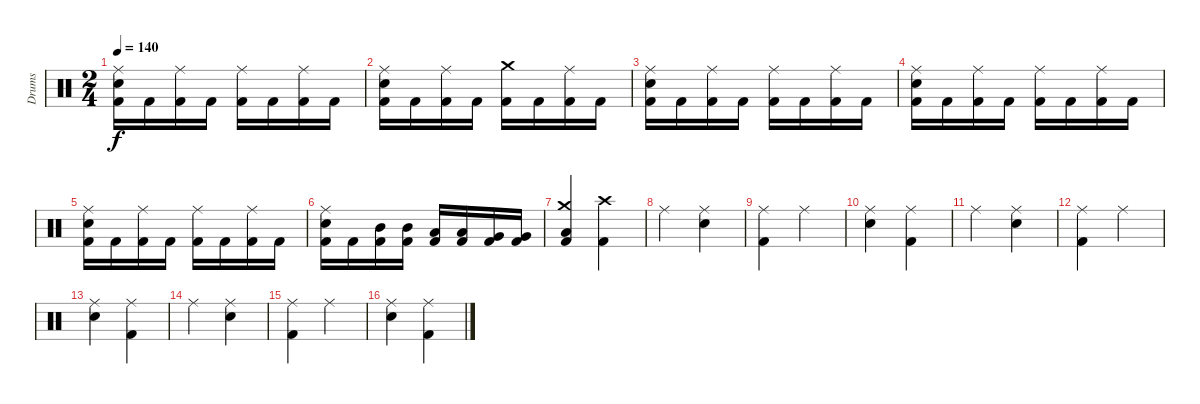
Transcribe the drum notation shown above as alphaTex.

\track ("Drums" "Drums") {instrument percussion}
\staff {score}
\articulation defaults
\ts (2 4)
\tempo 140
\clef neutral
\ks c
("Kick (hit) 2" "Electric Snare (hit)" "Ride (middle)").16{dy f} "Kick (hit) 2".16 ("Kick (hit) 2" "Ride (middle)").16 "Kick (hit) 2".16 ("Kick (hit) 2" "Ride (middle)").16 "Kick (hit) 2".16 ("Kick (hit) 2" "Ride (middle)").16 "Kick (hit) 2".16 |
("Kick (hit) 2" "Electric Snare (hit)" "Ride (middle)").16 "Kick (hit) 2".16 ("Kick (hit) 2" "Ride (middle)").16 "Kick (hit) 2".16 ("Kick (hit) 2" "Crash medium (hit)").16 "Kick (hit) 2".16 ("Kick (hit) 2" "Ride (middle)").16 "Kick (hit) 2".16 |
("Kick (hit) 2" "Electric Snare (hit)" "Ride (middle)").16 "Kick (hit) 2".16 ("Kick (hit) 2" "Ride (middle)").16 "Kick (hit) 2".16 ("Kick (hit) 2" "Ride (middle)").16 "Kick (hit) 2".16 ("Kick (hit) 2" "Ride (middle)").16 "Kick (hit) 2".16 |
("Kick (hit) 2" "Electric Snare (hit)" "Ride (middle)").16 "Kick (hit) 2".16 ("Kick (hit) 2" "Ride (middle)").16 "Kick (hit) 2".16 ("Kick (hit) 2" "Ride (middle)").16 "Kick (hit) 2".16 ("Kick (hit) 2" "Ride (middle)").16 "Kick (hit) 2".16 |
("Kick (hit) 2" "Electric Snare (hit)" "Ride (middle)").16 "Kick (hit) 2".16 ("Kick (hit) 2" "Ride (middle)").16 "Kick (hit) 2".16 ("Kick (hit) 2" "Ride (middle)").16 "Kick (hit) 2".16 ("Kick (hit) 2" "Ride (middle)").16 "Kick (hit) 2".16 |
("Kick (hit) 2" "Electric Snare (hit)" "Ride (middle)").16 "Kick (hit) 2".16 ("Kick (hit) 2" "Mid Tom (hit)").16 ("Kick (hit) 2" "Mid Tom (hit)").16 ("Kick (hit) 2" "Low Tom (hit)").16 ("Kick (hit) 2" "Low Tom (hit)").16 ("Kick (hit) 2" "Very Low Tom (hit)").16 ("Kick (hit) 2" "Very Low Tom (hit)").16 |
("Kick (hit) 2" "Low Floor Tom (hit)" "Crash medium (hit)").4 ("Kick (hit) 2" "Crash high (hit)").4 |
"Ride (middle)".4 ("Electric Snare (hit)" "Ride (middle)").4 |
("Kick (hit) 2" "Ride (middle)").4 "Ride (middle)".4 |
("Electric Snare (hit)" "Ride (middle)").4 ("Kick (hit) 2" "Ride (middle)").4 |
"Ride (middle)".4 ("Electric Snare (hit)" "Ride (middle)").4 |
("Kick (hit) 2" "Ride (middle)").4 "Ride (middle)".4 |
("Electric Snare (hit)" "Ride (middle)").4 ("Kick (hit) 2" "Ride (middle)").4 |
"Ride (middle)".4 ("Electric Snare (hit)" "Ride (middle)").4 |
("Kick (hit) 2" "Ride (middle)").4 "Ride (middle)".4 |
("Electric Snare (hit)" "Ride (middle)").4 ("Kick (hit) 2" "Ride (middle)").4
